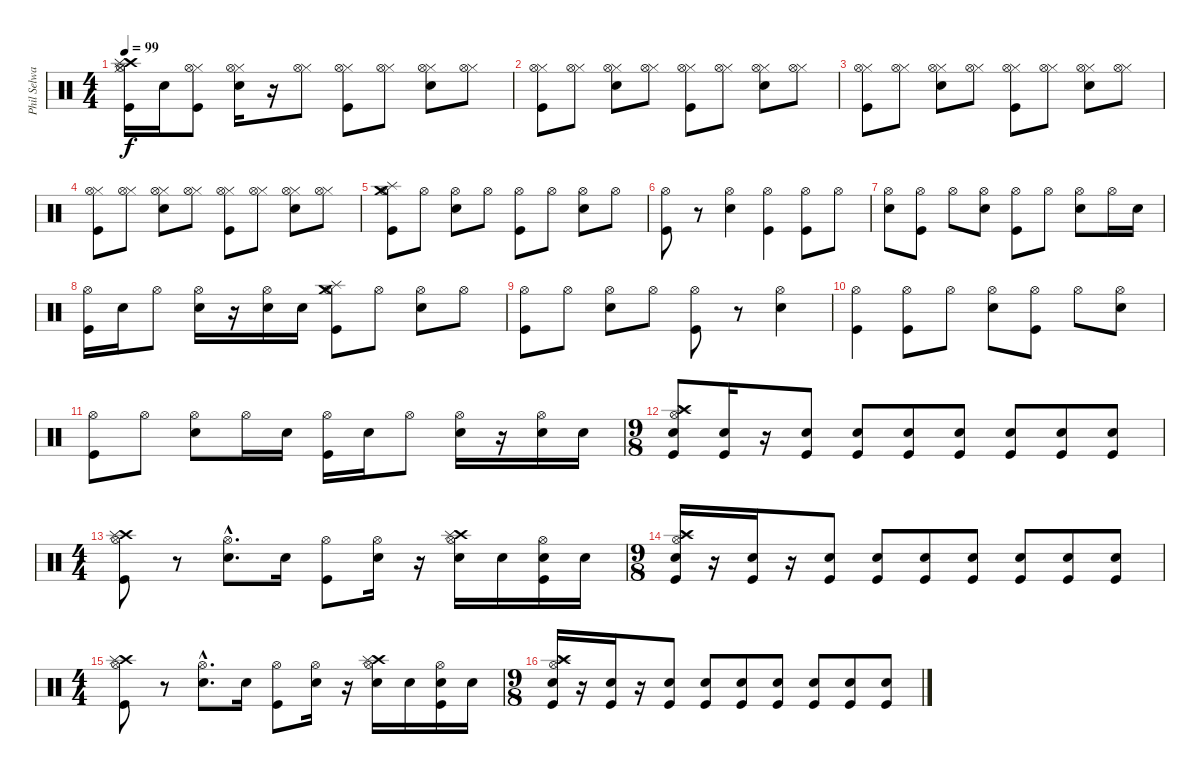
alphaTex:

\track ("Phil Selway" "Phil Selwa") {instrument percussion}
\staff {score}
\articulation defaults
\ts (4 4)
\tempo 99
\clef neutral
\ks c
("Kick (hit)" "Hi-Hat (closed)" "Hi-Hat (open)" "Crash high (hit)" "Splash (hit)").16{dy f} "Snare (hit) 2".16 ("Kick (hit)" "Hi-Hat (closed)" "Hi-Hat (open)").8 ("Snare (hit) 2" "Hi-Hat (closed)" "Hi-Hat (open)").16 r.16 ("Hi-Hat (closed)" "Hi-Hat (open)").8 ("Kick (hit)" "Hi-Hat (closed)" "Hi-Hat (open)").8 ("Hi-Hat (closed)" "Hi-Hat (open)").8 ("Snare (hit) 2" "Hi-Hat (closed)" "Hi-Hat (open)").8 ("Hi-Hat (closed)" "Hi-Hat (open)").8 |
("Kick (hit)" "Hi-Hat (closed)" "Hi-Hat (open)").8 ("Hi-Hat (closed)" "Hi-Hat (open)").8 ("Snare (hit) 2" "Hi-Hat (closed)" "Hi-Hat (open)").8 ("Hi-Hat (closed)" "Hi-Hat (open)").8 ("Kick (hit)" "Hi-Hat (closed)" "Hi-Hat (open)").8 ("Hi-Hat (closed)" "Hi-Hat (open)").8 ("Snare (hit) 2" "Hi-Hat (closed)" "Hi-Hat (open)").8 ("Hi-Hat (closed)" "Hi-Hat (open)").8 |
("Kick (hit)" "Hi-Hat (closed)" "Hi-Hat (open)").8 ("Hi-Hat (closed)" "Hi-Hat (open)").8 ("Snare (hit) 2" "Hi-Hat (closed)" "Hi-Hat (open)").8 ("Hi-Hat (closed)" "Hi-Hat (open)").8 ("Kick (hit)" "Hi-Hat (closed)" "Hi-Hat (open)").8 ("Hi-Hat (closed)" "Hi-Hat (open)").8 ("Snare (hit) 2" "Hi-Hat (closed)" "Hi-Hat (open)").8 ("Hi-Hat (closed)" "Hi-Hat (open)").8 |
("Kick (hit)" "Hi-Hat (closed)" "Hi-Hat (open)").8 ("Hi-Hat (closed)" "Hi-Hat (open)").8 ("Snare (hit) 2" "Hi-Hat (closed)" "Hi-Hat (open)").8 ("Hi-Hat (closed)" "Hi-Hat (open)").8 ("Kick (hit)" "Hi-Hat (closed)" "Hi-Hat (open)").8 ("Hi-Hat (closed)" "Hi-Hat (open)").8 ("Snare (hit) 2" "Hi-Hat (closed)" "Hi-Hat (open)").8 ("Hi-Hat (closed)" "Hi-Hat (open)").8 |
("Kick (hit)" "Hi-Hat (open)" "Splash (hit)" "Crash medium (hit)").8 "Hi-Hat (open)".8 ("Snare (hit) 2" "Hi-Hat (open)").8 "Hi-Hat (open)".8 ("Kick (hit)" "Hi-Hat (open)").8 "Hi-Hat (open)".8 ("Snare (hit) 2" "Hi-Hat (open)").8 "Hi-Hat (open)".8 |
("Kick (hit)" "Hi-Hat (open)").8 r.8 ("Snare (hit) 2" "Hi-Hat (open)").4 ("Kick (hit)" "Hi-Hat (open)").4 ("Kick (hit)" "Hi-Hat (open)").8 "Hi-Hat (open)".8 |
("Snare (hit) 2" "Hi-Hat (open)").8 ("Kick (hit)" "Hi-Hat (open)").8 "Hi-Hat (open)".8 ("Snare (hit) 2" "Hi-Hat (open)").8 ("Kick (hit)" "Hi-Hat (open)").8 "Hi-Hat (open)".8 ("Snare (hit) 2" "Hi-Hat (open)").8 "Hi-Hat (open)".16 "Snare (hit) 2".16 |
("Kick (hit)" "Hi-Hat (open)").16 "Snare (hit) 2".16 "Hi-Hat (open)".8 ("Snare (hit) 2" "Hi-Hat (open)").16 r.16 ("Snare (hit) 2" "Hi-Hat (open)").16 "Snare (hit) 2".16 ("Kick (hit)" "Hi-Hat (open)" "Splash (hit)" "Crash medium (hit)").8 "Hi-Hat (open)".8 ("Snare (hit) 2" "Hi-Hat (open)").8 "Hi-Hat (open)".8 |
("Kick (hit)" "Hi-Hat (open)").8 "Hi-Hat (open)".8 ("Snare (hit) 2" "Hi-Hat (open)").8 "Hi-Hat (open)".8 ("Kick (hit)" "Hi-Hat (open)").8 r.8 ("Snare (hit) 2" "Hi-Hat (open)").4 |
("Kick (hit)" "Hi-Hat (open)").4 ("Kick (hit)" "Hi-Hat (open)").8 "Hi-Hat (open)".8 ("Snare (hit) 2" "Hi-Hat (open)").8 ("Kick (hit)" "Hi-Hat (open)").8 "Hi-Hat (open)".8 ("Snare (hit) 2" "Hi-Hat (open)").8 |
("Kick (hit)" "Hi-Hat (open)").8 "Hi-Hat (open)".8 ("Snare (hit) 2" "Hi-Hat (open)").8 "Hi-Hat (open)".16 "Snare (hit) 2".16 ("Kick (hit)" "Hi-Hat (open)").16 "Snare (hit) 2".16 "Hi-Hat (open)".8 ("Snare (hit) 2" "Hi-Hat (open)").16 r.16 ("Snare (hit) 2" "Hi-Hat (open)").16 "Snare (hit) 2".16 |
\ts (9 8)
("Kick (hit)" "Snare (hit) 2" "Hi-Hat (open)" "Crash high (hit)" "Splash (hit)").8 ("Kick (hit)" "Snare (hit) 2").16 r.16 ("Kick (hit)" "Snare (hit) 2").8 ("Kick (hit)" "Snare (hit) 2").8 ("Kick (hit)" "Snare (hit) 2").8 ("Kick (hit)" "Snare (hit) 2").8 ("Kick (hit)" "Snare (hit) 2").8 ("Kick (hit)" "Snare (hit) 2").8 ("Kick (hit)" "Snare (hit) 2").8 |
\ts (4 4)
("Kick (hit)" "Hi-Hat (open)" "Crash high (hit)" "Splash (hit)").8 r.8 ("Snare (hit) 2"{hac} "Hi-Hat (open)"{hac}).8{d} "Snare (hit) 2".16 ("Kick (hit)" "Hi-Hat (open)").8 ("Snare (hit) 2" "Hi-Hat (open)").16 r.16 ("Snare (hit) 2" "Hi-Hat (open)" "Crash high (hit)" "Splash (hit)").16 "Snare (hit) 2".16 ("Kick (hit)" "Snare (hit) 2" "Hi-Hat (open)").16 "Snare (hit) 2".16 |
\ts (9 8)
("Kick (hit)" "Snare (hit) 2" "Hi-Hat (open)" "Crash high (hit)" "Splash (hit)").16 r.16 ("Kick (hit)" "Snare (hit) 2").16 r.16 ("Kick (hit)" "Snare (hit) 2").8 ("Kick (hit)" "Snare (hit) 2").8 ("Kick (hit)" "Snare (hit) 2").8 ("Kick (hit)" "Snare (hit) 2").8 ("Kick (hit)" "Snare (hit) 2").8 ("Kick (hit)" "Snare (hit) 2").8 ("Kick (hit)" "Snare (hit) 2").8 |
\ts (4 4)
("Kick (hit)" "Hi-Hat (open)" "Crash high (hit)" "Splash (hit)").8 r.8 ("Snare (hit) 2"{hac} "Hi-Hat (open)"{hac}).8{d} "Snare (hit) 2".16 ("Kick (hit)" "Hi-Hat (open)").8 ("Snare (hit) 2" "Hi-Hat (open)").16 r.16 ("Snare (hit) 2" "Hi-Hat (open)" "Crash high (hit)" "Splash (hit)").16 "Snare (hit) 2".16 ("Kick (hit)" "Snare (hit) 2" "Hi-Hat (open)").16 "Snare (hit) 2".16 |
\ts (9 8)
("Kick (hit)" "Snare (hit) 2" "Hi-Hat (open)" "Crash high (hit)" "Splash (hit)").16 r.16 ("Kick (hit)" "Snare (hit) 2").16 r.16 ("Kick (hit)" "Snare (hit) 2").8 ("Kick (hit)" "Snare (hit) 2").8 ("Kick (hit)" "Snare (hit) 2").8 ("Kick (hit)" "Snare (hit) 2").8 ("Kick (hit)" "Snare (hit) 2").8 ("Kick (hit)" "Snare (hit) 2").8 ("Kick (hit)" "Snare (hit) 2").8
